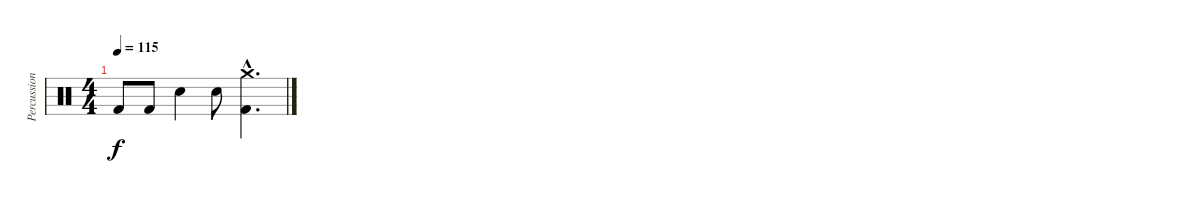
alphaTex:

\track ("Percussion" "Percussion") {instrument percussion}
\staff {score}
\articulation defaults
\ts (4 4)
\tempo 115
\clef neutral
\ks c "Kick (hit) 2"{t}.8{dy f} "Kick (hit) 2".8 "Electric Snare (hit)".4 "Electric Snare (hit)".8
("Kick (hit) 2"{hac} "Crash medium (hit)"{hac}).4{d}
